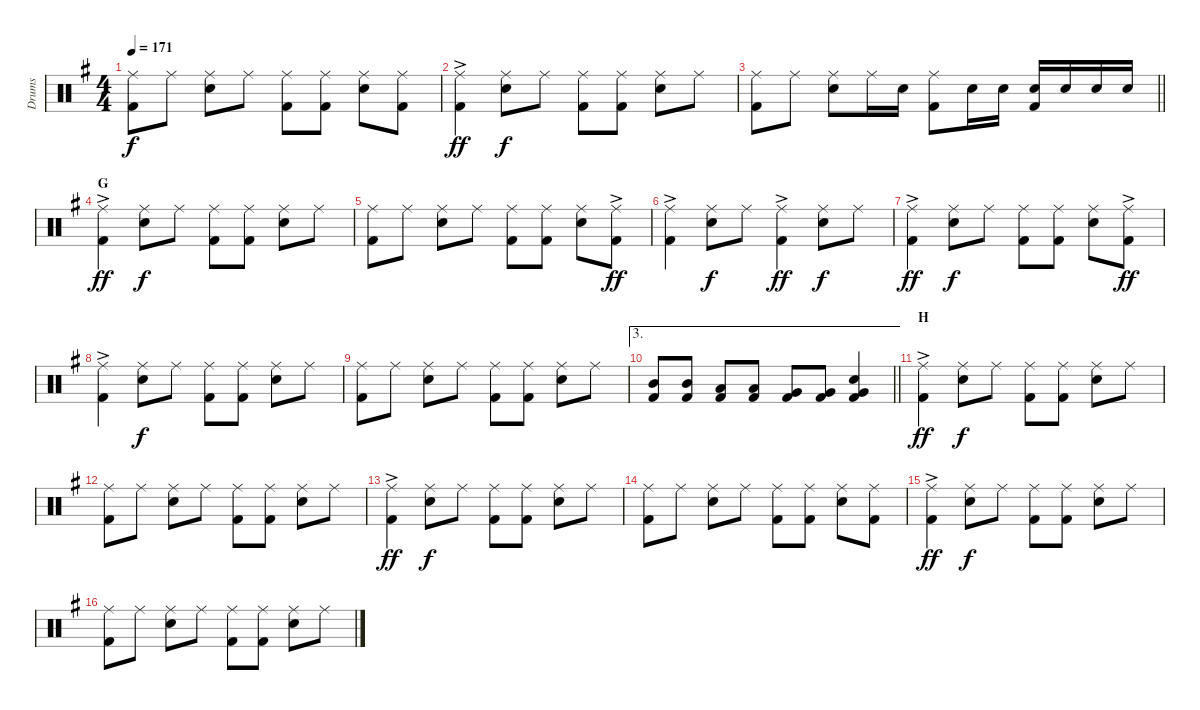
\track ("Drums" "Drums") {instrument percussion}
\staff {score}
\articulation defaults
\ts (4 4)
\tempo 171
\clef neutral
\ks g
("Ride (middle)" "Kick (hit) 2").8{dy f} "Ride (middle)".8 ("Ride (middle)" "Snare (hit) 2").8 "Ride (middle)".8 ("Ride (middle)" "Kick (hit) 2").8 ("Ride (middle)" "Kick (hit) 2").8 ("Ride (middle)" "Snare (hit) 2").8 ("Ride (middle)" "Kick (hit) 2").8 |
("Ride (middle)"{ac} "Kick (hit) 2").4{dy ff} ("Ride (middle)" "Snare (hit) 2").8{dy f} "Ride (middle)".8 ("Ride (middle)" "Kick (hit) 2").8 ("Ride (middle)" "Kick (hit) 2").8 ("Ride (middle)" "Snare (hit) 2").8 "Ride (middle)".8 |
\barLineRight lightlight
("Ride (middle)" "Kick (hit) 2").8 "Ride (middle)".8 ("Ride (middle)" "Snare (hit) 2").8 "Ride (middle)".16 "Snare (hit) 2".16 ("Ride (middle)" "Kick (hit) 2").8 "Snare (hit) 2".16 "Snare (hit) 2".16 ("Snare (hit) 2" "Kick (hit) 2").16 "Snare (hit) 2".16 "Snare (hit) 2".16 "Snare (hit) 2".16 |
\section ("" "G")
("Ride (middle)"{ac} "Kick (hit) 2").4{dy ff} ("Ride (middle)" "Snare (hit) 2").8{dy f} "Ride (middle)".8 ("Ride (middle)" "Kick (hit) 2").8 ("Ride (middle)" "Kick (hit) 2").8 ("Ride (middle)" "Snare (hit) 2").8 "Ride (middle)".8 |
("Ride (middle)" "Kick (hit) 2").8 "Ride (middle)".8 ("Ride (middle)" "Snare (hit) 2").8 "Ride (middle)".8 ("Ride (middle)" "Kick (hit) 2").8 ("Ride (middle)" "Kick (hit) 2").8 ("Ride (middle)" "Snare (hit) 2").8 ("Ride (middle)"{ac} "Kick (hit) 2").8{dy ff} |
("Ride (middle)"{ac} "Kick (hit) 2").4 ("Ride (middle)" "Snare (hit) 2").8{dy f} "Ride (middle)".8 ("Ride (middle)"{ac} "Kick (hit) 2").4{dy ff} ("Ride (middle)" "Snare (hit) 2").8{dy f} "Ride (middle)".8 |
("Ride (middle)"{ac} "Kick (hit) 2").4{dy ff} ("Ride (middle)" "Snare (hit) 2").8{dy f} "Ride (middle)".8 ("Ride (middle)" "Kick (hit) 2").8 ("Ride (middle)" "Kick (hit) 2").8 ("Ride (middle)" "Snare (hit) 2").8 ("Ride (middle)"{ac} "Kick (hit) 2").8{dy ff} |
("Ride (middle)"{ac} "Kick (hit) 2").4 ("Ride (middle)" "Snare (hit) 2").8{dy f} "Ride (middle)".8 ("Ride (middle)" "Kick (hit) 2").8 ("Ride (middle)" "Kick (hit) 2").8 ("Ride (middle)" "Snare (hit) 2").8 "Ride (middle)".8 |
("Ride (middle)" "Kick (hit) 2").8 "Ride (middle)".8 ("Ride (middle)" "Snare (hit) 2").8 "Ride (middle)".8 ("Ride (middle)" "Kick (hit) 2").8 ("Ride (middle)" "Kick (hit) 2").8 ("Ride (middle)" "Snare (hit) 2").8 "Ride (middle)".8 |
\ae 3
\barLineRight lightlight
("Mid Tom (hit)" "Kick (hit) 2").8 ("Mid Tom (hit)" "Kick (hit) 2").8 ("Low Tom (hit)" "Kick (hit) 2").8 ("Low Tom (hit)" "Kick (hit) 2").8 ("Very Low Tom (hit)" "Kick (hit) 2").8 ("Very Low Tom (hit)" "Kick (hit) 2").8 ("Snare (hit) 2" "Very Low Tom (hit)" "Kick (hit) 2").4 |
\section ("" "H")
("Ride (middle)"{ac} "Kick (hit) 2").4{dy ff} ("Ride (middle)" "Snare (hit) 2").8{dy f} "Ride (middle)".8 ("Ride (middle)" "Kick (hit) 2").8 ("Ride (middle)" "Kick (hit) 2").8 ("Ride (middle)" "Snare (hit) 2").8 "Ride (middle)".8 |
("Ride (middle)" "Kick (hit) 2").8 "Ride (middle)".8 ("Ride (middle)" "Snare (hit) 2").8 "Ride (middle)".8 ("Ride (middle)" "Kick (hit) 2").8 ("Ride (middle)" "Kick (hit) 2").8 ("Ride (middle)" "Snare (hit) 2").8 "Ride (middle)".8 |
("Ride (middle)"{ac} "Kick (hit) 2").4{dy ff} ("Ride (middle)" "Snare (hit) 2").8{dy f} "Ride (middle)".8 ("Ride (middle)" "Kick (hit) 2").8 ("Ride (middle)" "Kick (hit) 2").8 ("Ride (middle)" "Snare (hit) 2").8 "Ride (middle)".8 |
("Ride (middle)" "Kick (hit) 2").8 "Ride (middle)".8 ("Ride (middle)" "Snare (hit) 2").8 "Ride (middle)".8 ("Ride (middle)" "Kick (hit) 2").8 ("Ride (middle)" "Kick (hit) 2").8 ("Ride (middle)" "Snare (hit) 2").8 ("Ride (middle)" "Kick (hit) 2").8 |
("Ride (middle)"{ac} "Kick (hit) 2").4{dy ff} ("Ride (middle)" "Snare (hit) 2").8{dy f} "Ride (middle)".8 ("Ride (middle)" "Kick (hit) 2").8 ("Ride (middle)" "Kick (hit) 2").8 ("Ride (middle)" "Snare (hit) 2").8 "Ride (middle)".8 |
("Ride (middle)" "Kick (hit) 2").8 "Ride (middle)".8 ("Ride (middle)" "Snare (hit) 2").8 "Ride (middle)".8 ("Ride (middle)" "Kick (hit) 2").8 ("Ride (middle)" "Kick (hit) 2").8 ("Ride (middle)" "Snare (hit) 2").8 "Ride (middle)".8
